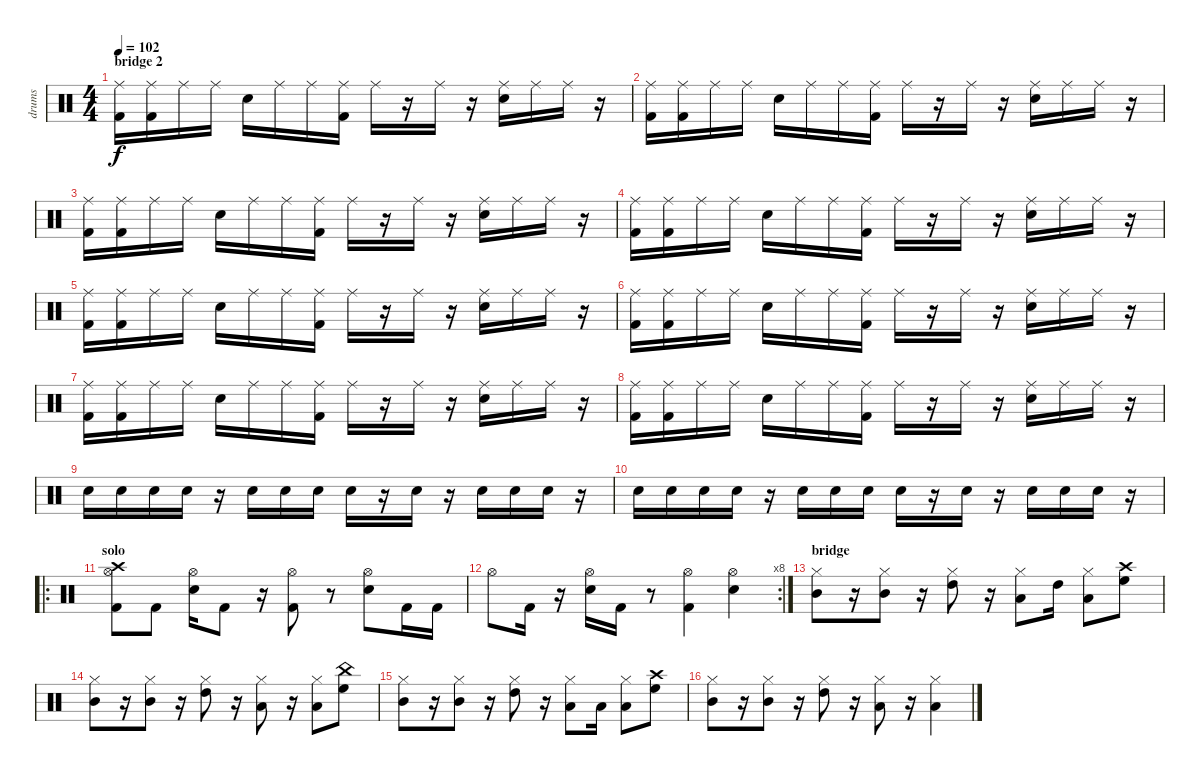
\track ("drums" "drums") {instrument percussion}
\staff {score}
\articulation defaults
\ts (4 4)
\section ("" "bridge 2")
\tempo 102
\clef neutral
\ks c
("Kick (hit) 2" "Ride (middle)").16{dy f} ("Kick (hit) 2" "Ride (middle)").16 "Ride (middle)".16 "Ride (middle)".16 "Snare (hit) 2".16 "Ride (middle)".16 "Ride (middle)".16 ("Kick (hit) 2" "Ride (middle)").16 "Ride (middle)".16 r.16 "Ride (middle)".16 r.16 ("Snare (hit) 2" "Ride (middle)").16 "Ride (middle)".16 "Ride (middle)".16 r.16 |
("Kick (hit) 2" "Ride (middle)").16 ("Kick (hit) 2" "Ride (middle)").16 "Ride (middle)".16 "Ride (middle)".16 "Snare (hit) 2".16 "Ride (middle)".16 "Ride (middle)".16 ("Kick (hit) 2" "Ride (middle)").16 "Ride (middle)".16 r.16 "Ride (middle)".16 r.16 ("Snare (hit) 2" "Ride (middle)").16 "Ride (middle)".16 "Ride (middle)".16 r.16 |
("Kick (hit) 2" "Ride (middle)").16 ("Kick (hit) 2" "Ride (middle)").16 "Ride (middle)".16 "Ride (middle)".16 "Snare (hit) 2".16 "Ride (middle)".16 "Ride (middle)".16 ("Kick (hit) 2" "Ride (middle)").16 "Ride (middle)".16 r.16 "Ride (middle)".16 r.16 ("Snare (hit) 2" "Ride (middle)").16 "Ride (middle)".16 "Ride (middle)".16 r.16 |
("Kick (hit) 2" "Ride (middle)").16 ("Kick (hit) 2" "Ride (middle)").16 "Ride (middle)".16 "Ride (middle)".16 "Snare (hit) 2".16 "Ride (middle)".16 "Ride (middle)".16 ("Kick (hit) 2" "Ride (middle)").16 "Ride (middle)".16 r.16 "Ride (middle)".16 r.16 ("Snare (hit) 2" "Ride (middle)").16 "Ride (middle)".16 "Ride (middle)".16 r.16 |
("Kick (hit) 2" "Ride (middle)").16 ("Kick (hit) 2" "Ride (middle)").16 "Ride (middle)".16 "Ride (middle)".16 "Snare (hit) 2".16 "Ride (middle)".16 "Ride (middle)".16 ("Kick (hit) 2" "Ride (middle)").16 "Ride (middle)".16 r.16 "Ride (middle)".16 r.16 ("Snare (hit) 2" "Ride (middle)").16 "Ride (middle)".16 "Ride (middle)".16 r.16 |
("Kick (hit) 2" "Ride (middle)").16 ("Kick (hit) 2" "Ride (middle)").16 "Ride (middle)".16 "Ride (middle)".16 "Snare (hit) 2".16 "Ride (middle)".16 "Ride (middle)".16 ("Kick (hit) 2" "Ride (middle)").16 "Ride (middle)".16 r.16 "Ride (middle)".16 r.16 ("Snare (hit) 2" "Ride (middle)").16 "Ride (middle)".16 "Ride (middle)".16 r.16 |
("Kick (hit) 2" "Ride (middle)").16 ("Kick (hit) 2" "Ride (middle)").16 "Ride (middle)".16 "Ride (middle)".16 "Snare (hit) 2".16 "Ride (middle)".16 "Ride (middle)".16 ("Kick (hit) 2" "Ride (middle)").16 "Ride (middle)".16 r.16 "Ride (middle)".16 r.16 ("Snare (hit) 2" "Ride (middle)").16 "Ride (middle)".16 "Ride (middle)".16 r.16 |
("Kick (hit) 2" "Ride (middle)").16 ("Kick (hit) 2" "Ride (middle)").16 "Ride (middle)".16 "Ride (middle)".16 "Snare (hit) 2".16 "Ride (middle)".16 "Ride (middle)".16 ("Kick (hit) 2" "Ride (middle)").16 "Ride (middle)".16 r.16 "Ride (middle)".16 r.16 ("Snare (hit) 2" "Ride (middle)").16 "Ride (middle)".16 "Ride (middle)".16 r.16 |
"Snare (hit) 2".16 "Snare (hit) 2".16 "Snare (hit) 2".16 "Snare (hit) 2".16 r.16 "Snare (hit) 2".16 "Snare (hit) 2".16 "Snare (hit) 2".16 "Snare (hit) 2".16 r.16 "Snare (hit) 2".16 r.16 "Snare (hit) 2".16 "Snare (hit) 2".16 "Snare (hit) 2".16 r.16 |
"Snare (hit) 2".16 "Snare (hit) 2".16 "Snare (hit) 2".16 "Snare (hit) 2".16 r.16 "Snare (hit) 2".16 "Snare (hit) 2".16 "Snare (hit) 2".16 "Snare (hit) 2".16 r.16 "Snare (hit) 2".16 r.16 "Snare (hit) 2".16 "Snare (hit) 2".16 "Snare (hit) 2".16 r.16 |
\ro
\section ("" "solo")
("Kick (hit) 2" "Hi-Hat (open)" "Crash high (hit)").8 "Kick (hit) 2".8 ("Snare (hit) 2" "Hi-Hat (open)").16 "Kick (hit) 2".8 r.16 ("Kick (hit) 2" "Hi-Hat (open)").8 r.8 ("Snare (hit) 2" "Hi-Hat (open)").8 "Kick (hit) 2".16 "Kick (hit) 2".16 |
\rc 8 "Hi-Hat (open)".8 "Kick (hit) 2".16
r.16 ("Snare (hit) 2" "Hi-Hat (open)").16 "Kick (hit) 2".16 r.8 ("Kick (hit) 2" "Hi-Hat (open)").4 ("Snare (hit) 2" "Hi-Hat (open)").4 |
\section ("" "bridge")
("Mid Tom (hit)" "Hi-Hat (closed)").8 r.16 ("Mid Tom (hit)" "Hi-Hat (closed)").8 r.16 ("High Tom (hit)" "Hi-Hat (closed)").8 r.16 ("Low Tom (hit)" "Hi-Hat (closed)").8 "High Tom (hit)".16 ("Low Tom (hit)" "Hi-Hat (closed)").8 ("High Floor Tom (hit)" "Crash high (hit)").8 |
("Mid Tom (hit)" "Hi-Hat (closed)").8 r.16 ("Mid Tom (hit)" "Hi-Hat (closed)").8 r.16 ("High Tom (hit)" "Hi-Hat (closed)").8 r.16 ("Low Tom (hit)" "Hi-Hat (closed)").8 r.16 ("Low Tom (hit)" "Hi-Hat (closed)").8 ("High Floor Tom (hit)" "China (hit)").8 |
("Mid Tom (hit)" "Hi-Hat (closed)").8 r.16 ("Mid Tom (hit)" "Hi-Hat (closed)").8 r.16 ("High Tom (hit)" "Hi-Hat (closed)").8 r.16 ("Low Tom (hit)" "Hi-Hat (closed)").8 "Low Tom (hit)".16 ("Low Tom (hit)" "Hi-Hat (closed)").8 ("High Floor Tom (hit)" "Crash high (hit)").8 |
("Mid Tom (hit)" "Hi-Hat (closed)").8 r.16 ("Mid Tom (hit)" "Hi-Hat (closed)").8 r.16 ("High Tom (hit)" "Hi-Hat (closed)").8 r.16 ("Low Tom (hit)" "Hi-Hat (closed)").8 r.16 ("Low Tom (hit)" "Hi-Hat (closed)").4
